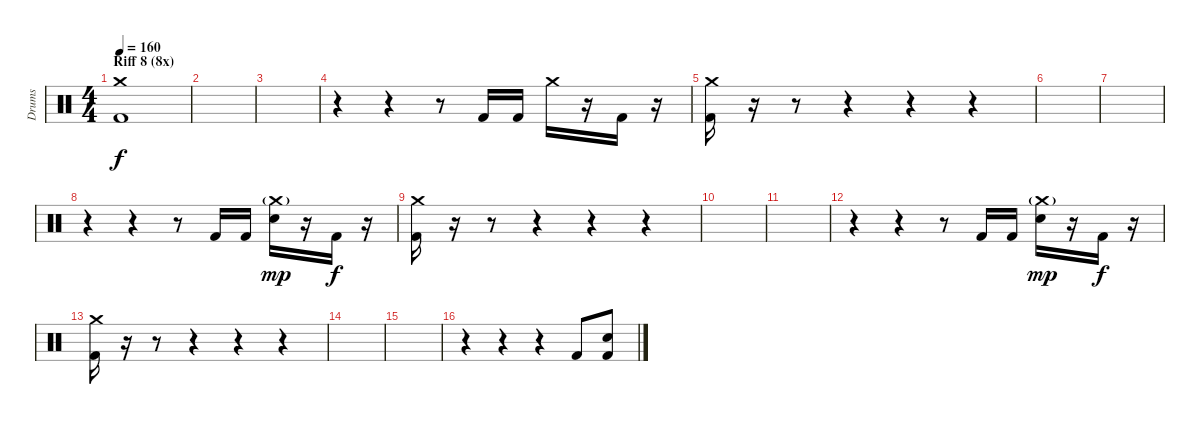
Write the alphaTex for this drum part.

\track ("Drums" "Drums") {instrument percussion}
\staff {score}
\articulation defaults
\ts (4 4)
\section ("" "Riff 8 (8x)")
\tempo 160
\clef neutral
\ks c
("Crash medium (hit)" "Kick (hit) 2").1{dy f} |
|
|
r.4 r.4 r.8 "Kick (hit) 2".16 "Kick (hit) 2".16 "Crash medium (hit)".16 r.16 "Kick (hit) 2".16 r.16 |
("Crash medium (hit)" "Kick (hit) 2").16 r.16 r.8{volume 0} r.4 r.4 r.4 |
|
|
r.4 r.4 r.8 "Kick (hit) 2".16 "Kick (hit) 2".16 ("Crash medium (hit)"{g} "Electric Snare (hit)").16{dy mp} r.16 "Kick (hit) 2".16{dy f} r.16 |
("Crash medium (hit)" "Kick (hit) 2").16 r.16 r.8{volume 0} r.4 r.4 r.4 |
|
|
r.4 r.4 r.8 "Kick (hit) 2".16 "Kick (hit) 2".16 ("Crash medium (hit)"{g} "Electric Snare (hit)").16{dy mp} r.16 "Kick (hit) 2".16{dy f} r.16 |
("Crash medium (hit)" "Kick (hit) 2").16 r.16 r.8{volume 0} r.4 r.4 r.4 |
|
|
r.4 r.4 r.4 "Kick (hit) 2".8 ("Electric Snare (hit)" "Kick (hit) 2").8
